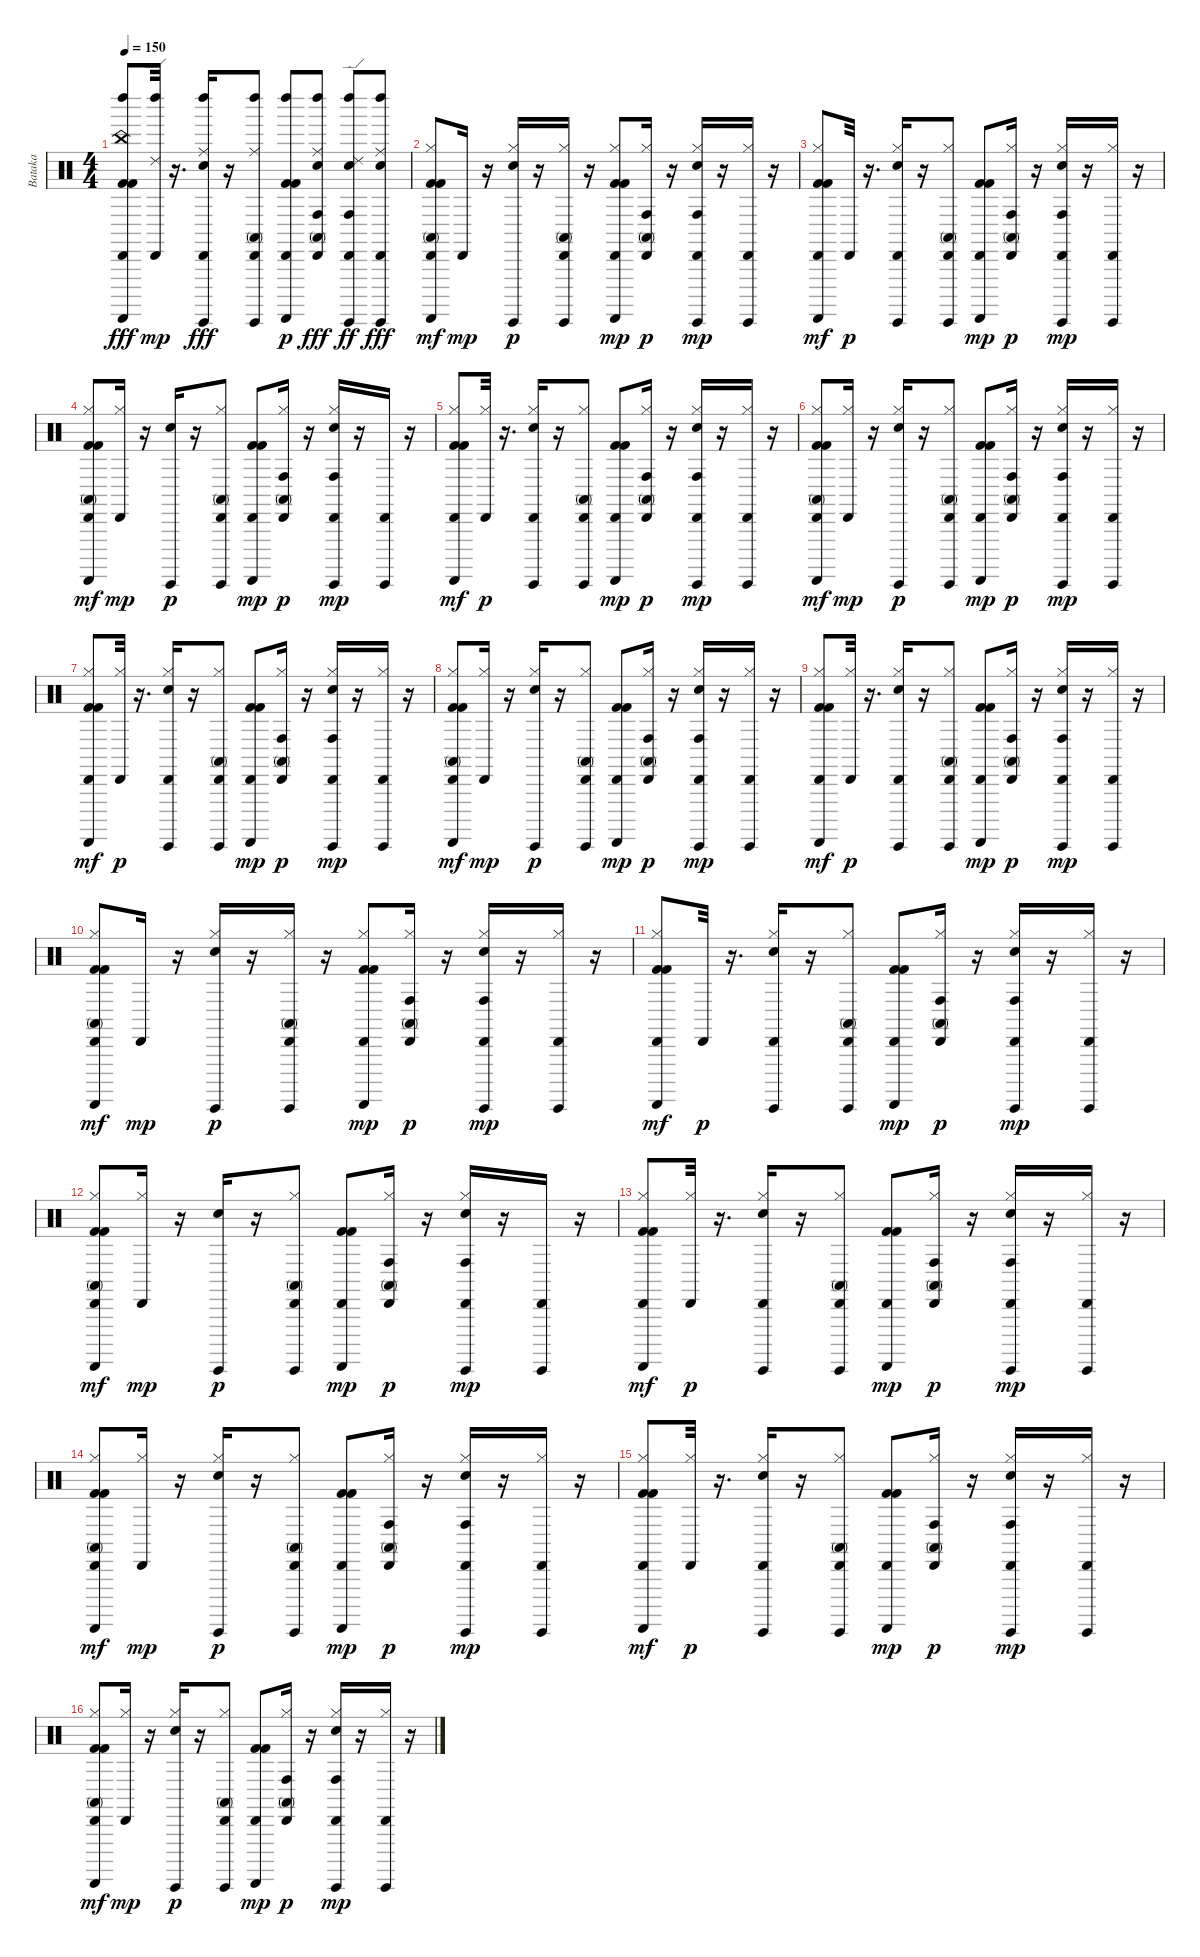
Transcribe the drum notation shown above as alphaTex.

\track ("Bataka" "Bataka") {instrument percussion}
\staff {score}
\articulation defaults
\ts (4 4)
\tempo 150
\clef neutral
\ks c
("Kick (hit) 2" "Kick (hit) 2" "Cabasa (hit)" "Guiro (scrap-return)" "Left Maraca (hit)" "China (hit)").8{dy fff} ("Cabasa (hit)" "Left Maraca (hit)" "Ride (edge) 2").32{dy mp} r.16{d} ("Electric Snare (hit)" "Cabasa (hit)" "Guiro (hit)" "Left Maraca (hit)" "Ride (middle)").16{dy fff} r.16 ("Conga high (mute)" "Cabasa (hit)" "Guiro (hit)" "Left Maraca (hit)" "Ride (middle)").8 ("Kick (hit) 2" "Kick (hit) 2" "Cabasa (hit)" "Guiro (scrap-return)" "Left Maraca (hit)").8{dy p} ("Electric Snare (hit)" "Conga high (hit)" "Conga high (mute)" "Cabasa (hit)" "Left Maraca (hit)" "Ride (middle)").8{dy fff} ("Electric Snare (hit)" "Conga high (hit)" "Cabasa (hit)" "Guiro (hit)" "Left Maraca (hit)" "Ride (edge) 2").8{dy ff} ("Electric Snare (hit)" "Cabasa (hit)" "Guiro (hit)" "Left Maraca (hit)" "Ride (middle)").8{dy fff} |
("Kick (hit) 2" "Kick (hit) 2" "Hi-Hat (closed)" "Conga high (mute)" "Cabasa (hit)" "Guiro (scrap-return)").8{dy mf} "Cabasa (hit)".16{dy mp} r.16 ("Electric Snare (hit)" "Hi-Hat (closed)" "Guiro (hit)").16{dy p} r.16 ("Hi-Hat (closed)" "Conga high (mute)" "Cabasa (hit)" "Guiro (hit)").16 r.16 ("Kick (hit) 2" "Kick (hit) 2" "Hi-Hat (closed)" "Cabasa (hit)" "Guiro (scrap-return)").8{dy mp} ("Hi-Hat (closed)" "Conga high (hit)" "Conga high (mute)" "Cabasa (hit)").16{dy p} r.16 ("Electric Snare (hit)" "Hi-Hat (closed)" "Conga high (hit)" "Cabasa (hit)" "Guiro (hit)").16{dy mp} r.16 ("Hi-Hat (closed)" "Cabasa (hit)" "Guiro (hit)").16 r.16 |
("Kick (hit) 2" "Kick (hit) 2" "Hi-Hat (closed)" "Cabasa (hit)" "Guiro (scrap-return)").8{dy mf} "Cabasa (hit)".32{dy p} r.16{d} ("Electric Snare (hit)" "Hi-Hat (closed)" "Cabasa (hit)" "Guiro (hit)").16 r.16 ("Hi-Hat (closed)" "Conga high (mute)" "Cabasa (hit)" "Guiro (hit)").8 ("Kick (hit) 2" "Kick (hit) 2" "Cabasa (hit)" "Guiro (scrap-return)").8{dy mp} ("Hi-Hat (closed)" "Conga high (hit)" "Conga high (mute)" "Cabasa (hit)").16{dy p} r.16 ("Electric Snare (hit)" "Hi-Hat (closed)" "Conga high (hit)" "Cabasa (hit)" "Guiro (hit)").16{dy mp} r.16 ("Hi-Hat (closed)" "Cabasa (hit)" "Guiro (hit)").16 r.16 |
("Kick (hit) 2" "Kick (hit) 2" "Hi-Hat (closed)" "Conga high (mute)" "Cabasa (hit)" "Guiro (scrap-return)").8{dy mf} ("Hi-Hat (closed)" "Cabasa (hit)").16{dy mp} r.16 ("Electric Snare (hit)" "Guiro (hit)").16{dy p} r.16 ("Hi-Hat (closed)" "Conga high (mute)" "Cabasa (hit)" "Guiro (hit)").8 ("Kick (hit) 2" "Kick (hit) 2" "Cabasa (hit)" "Guiro (scrap-return)").8{dy mp} ("Hi-Hat (closed)" "Conga high (hit)" "Conga high (mute)" "Cabasa (hit)").16{dy p} r.16 ("Electric Snare (hit)" "Hi-Hat (closed)" "Conga high (hit)" "Cabasa (hit)" "Guiro (hit)").16{dy mp} r.16 ("Cabasa (hit)" "Guiro (hit)").16 r.16 |
("Kick (hit) 2" "Kick (hit) 2" "Hi-Hat (closed)" "Cabasa (hit)" "Guiro (scrap-return)").8{dy mf} ("Hi-Hat (closed)" "Cabasa (hit)").32{dy p} r.16{d} ("Electric Snare (hit)" "Hi-Hat (closed)" "Cabasa (hit)" "Guiro (hit)").16 r.16 ("Hi-Hat (closed)" "Conga high (mute)" "Cabasa (hit)" "Guiro (hit)").8 ("Kick (hit) 2" "Kick (hit) 2" "Cabasa (hit)" "Guiro (scrap-return)").8{dy mp} ("Hi-Hat (closed)" "Conga high (hit)" "Conga high (mute)" "Cabasa (hit)").16{dy p} r.16 ("Electric Snare (hit)" "Hi-Hat (closed)" "Conga high (hit)" "Cabasa (hit)" "Guiro (hit)").16{dy mp} r.16 ("Hi-Hat (closed)" "Cabasa (hit)" "Guiro (hit)").16 r.16 |
("Kick (hit) 2" "Kick (hit) 2" "Hi-Hat (closed)" "Conga high (mute)" "Cabasa (hit)" "Guiro (scrap-return)").8{dy mf} ("Hi-Hat (closed)" "Cabasa (hit)").16{dy mp} r.16 ("Electric Snare (hit)" "Hi-Hat (closed)" "Guiro (hit)").16{dy p} r.16 ("Hi-Hat (closed)" "Conga high (mute)" "Cabasa (hit)" "Guiro (hit)").8 ("Kick (hit) 2" "Kick (hit) 2" "Cabasa (hit)" "Guiro (scrap-return)").8{dy mp} ("Hi-Hat (closed)" "Conga high (hit)" "Conga high (mute)" "Cabasa (hit)").16{dy p} r.16 ("Electric Snare (hit)" "Hi-Hat (closed)" "Conga high (hit)" "Cabasa (hit)" "Guiro (hit)").16{dy mp} r.16 ("Hi-Hat (closed)" "Cabasa (hit)" "Guiro (hit)").16 r.16 |
("Kick (hit) 2" "Kick (hit) 2" "Hi-Hat (closed)" "Cabasa (hit)" "Guiro (scrap-return)").8{dy mf} ("Hi-Hat (closed)" "Cabasa (hit)").32{dy p} r.16{d} ("Electric Snare (hit)" "Hi-Hat (closed)" "Cabasa (hit)" "Guiro (hit)").16 r.16 ("Hi-Hat (closed)" "Conga high (mute)" "Cabasa (hit)" "Guiro (hit)").8 ("Kick (hit) 2" "Kick (hit) 2" "Cabasa (hit)" "Guiro (scrap-return)").8{dy mp} ("Hi-Hat (closed)" "Conga high (hit)" "Conga high (mute)" "Cabasa (hit)").16{dy p} r.16 ("Electric Snare (hit)" "Hi-Hat (closed)" "Conga high (hit)" "Cabasa (hit)" "Guiro (hit)").16{dy mp} r.16 ("Hi-Hat (closed)" "Cabasa (hit)" "Guiro (hit)").16 r.16 |
("Kick (hit) 2" "Kick (hit) 2" "Hi-Hat (closed)" "Conga high (mute)" "Cabasa (hit)" "Guiro (scrap-return)").8{dy mf} ("Hi-Hat (closed)" "Cabasa (hit)").16{dy mp} r.16 ("Electric Snare (hit)" "Hi-Hat (closed)" "Guiro (hit)").16{dy p} r.16 ("Hi-Hat (closed)" "Conga high (mute)" "Cabasa (hit)" "Guiro (hit)").8 ("Kick (hit) 2" "Kick (hit) 2" "Cabasa (hit)" "Guiro (scrap-return)").8{dy mp} ("Hi-Hat (closed)" "Conga high (hit)" "Conga high (mute)" "Cabasa (hit)").16{dy p} r.16 ("Electric Snare (hit)" "Hi-Hat (closed)" "Conga high (hit)" "Cabasa (hit)" "Guiro (hit)").16{dy mp} r.16 ("Hi-Hat (closed)" "Cabasa (hit)" "Guiro (hit)").16 r.16 |
("Kick (hit) 2" "Kick (hit) 2" "Hi-Hat (closed)" "Cabasa (hit)" "Guiro (scrap-return)").8{dy mf} ("Hi-Hat (closed)" "Cabasa (hit)").32{dy p} r.16{d} ("Electric Snare (hit)" "Hi-Hat (closed)" "Cabasa (hit)" "Guiro (hit)").16 r.16 ("Hi-Hat (closed)" "Conga high (mute)" "Cabasa (hit)" "Guiro (hit)").8 ("Kick (hit) 2" "Kick (hit) 2" "Cabasa (hit)" "Guiro (scrap-return)").8{dy mp} ("Hi-Hat (closed)" "Conga high (hit)" "Conga high (mute)" "Cabasa (hit)").16{dy p} r.16 ("Electric Snare (hit)" "Hi-Hat (closed)" "Conga high (hit)" "Cabasa (hit)" "Guiro (hit)").16{dy mp} r.16 ("Hi-Hat (closed)" "Cabasa (hit)" "Guiro (hit)").16 r.16 |
("Kick (hit) 2" "Kick (hit) 2" "Hi-Hat (closed)" "Conga high (mute)" "Cabasa (hit)" "Guiro (scrap-return)").8{dy mf} "Cabasa (hit)".16{dy mp} r.16 ("Electric Snare (hit)" "Hi-Hat (closed)" "Guiro (hit)").16{dy p} r.16 ("Hi-Hat (closed)" "Conga high (mute)" "Cabasa (hit)" "Guiro (hit)").16 r.16 ("Kick (hit) 2" "Kick (hit) 2" "Hi-Hat (closed)" "Cabasa (hit)" "Guiro (scrap-return)").8{dy mp} ("Hi-Hat (closed)" "Conga high (hit)" "Conga high (mute)" "Cabasa (hit)").16{dy p} r.16 ("Electric Snare (hit)" "Hi-Hat (closed)" "Conga high (hit)" "Cabasa (hit)" "Guiro (hit)").16{dy mp} r.16 ("Hi-Hat (closed)" "Cabasa (hit)" "Guiro (hit)").16 r.16 |
("Kick (hit) 2" "Kick (hit) 2" "Hi-Hat (closed)" "Cabasa (hit)" "Guiro (scrap-return)").8{dy mf} "Cabasa (hit)".32{dy p} r.16{d} ("Electric Snare (hit)" "Hi-Hat (closed)" "Cabasa (hit)" "Guiro (hit)").16 r.16 ("Hi-Hat (closed)" "Conga high (mute)" "Cabasa (hit)" "Guiro (hit)").8 ("Kick (hit) 2" "Kick (hit) 2" "Cabasa (hit)" "Guiro (scrap-return)").8{dy mp} ("Hi-Hat (closed)" "Conga high (hit)" "Conga high (mute)" "Cabasa (hit)").16{dy p} r.16 ("Electric Snare (hit)" "Hi-Hat (closed)" "Conga high (hit)" "Cabasa (hit)" "Guiro (hit)").16{dy mp} r.16 ("Hi-Hat (closed)" "Cabasa (hit)" "Guiro (hit)").16 r.16 |
("Kick (hit) 2" "Kick (hit) 2" "Hi-Hat (closed)" "Conga high (mute)" "Cabasa (hit)" "Guiro (scrap-return)").8{dy mf} ("Hi-Hat (closed)" "Cabasa (hit)").16{dy mp} r.16 ("Electric Snare (hit)" "Guiro (hit)").16{dy p} r.16 ("Hi-Hat (closed)" "Conga high (mute)" "Cabasa (hit)" "Guiro (hit)").8 ("Kick (hit) 2" "Kick (hit) 2" "Cabasa (hit)" "Guiro (scrap-return)").8{dy mp} ("Hi-Hat (closed)" "Conga high (hit)" "Conga high (mute)" "Cabasa (hit)").16{dy p} r.16 ("Electric Snare (hit)" "Hi-Hat (closed)" "Conga high (hit)" "Cabasa (hit)" "Guiro (hit)").16{dy mp} r.16 ("Cabasa (hit)" "Guiro (hit)").16 r.16 |
("Kick (hit) 2" "Kick (hit) 2" "Hi-Hat (closed)" "Cabasa (hit)" "Guiro (scrap-return)").8{dy mf} ("Hi-Hat (closed)" "Cabasa (hit)").32{dy p} r.16{d} ("Electric Snare (hit)" "Hi-Hat (closed)" "Cabasa (hit)" "Guiro (hit)").16 r.16 ("Hi-Hat (closed)" "Conga high (mute)" "Cabasa (hit)" "Guiro (hit)").8 ("Kick (hit) 2" "Kick (hit) 2" "Cabasa (hit)" "Guiro (scrap-return)").8{dy mp} ("Hi-Hat (closed)" "Conga high (hit)" "Conga high (mute)" "Cabasa (hit)").16{dy p} r.16 ("Electric Snare (hit)" "Hi-Hat (closed)" "Conga high (hit)" "Cabasa (hit)" "Guiro (hit)").16{dy mp} r.16 ("Hi-Hat (closed)" "Cabasa (hit)" "Guiro (hit)").16 r.16 |
("Kick (hit) 2" "Kick (hit) 2" "Hi-Hat (closed)" "Conga high (mute)" "Cabasa (hit)" "Guiro (scrap-return)").8{dy mf} ("Hi-Hat (closed)" "Cabasa (hit)").16{dy mp} r.16 ("Electric Snare (hit)" "Hi-Hat (closed)" "Guiro (hit)").16{dy p} r.16 ("Hi-Hat (closed)" "Conga high (mute)" "Cabasa (hit)" "Guiro (hit)").8 ("Kick (hit) 2" "Kick (hit) 2" "Cabasa (hit)" "Guiro (scrap-return)").8{dy mp} ("Hi-Hat (closed)" "Conga high (hit)" "Conga high (mute)" "Cabasa (hit)").16{dy p} r.16 ("Electric Snare (hit)" "Hi-Hat (closed)" "Conga high (hit)" "Cabasa (hit)" "Guiro (hit)").16{dy mp} r.16 ("Hi-Hat (closed)" "Cabasa (hit)" "Guiro (hit)").16 r.16 |
("Kick (hit) 2" "Kick (hit) 2" "Hi-Hat (closed)" "Cabasa (hit)" "Guiro (scrap-return)").8{dy mf} ("Hi-Hat (closed)" "Cabasa (hit)").32{dy p} r.16{d} ("Electric Snare (hit)" "Hi-Hat (closed)" "Cabasa (hit)" "Guiro (hit)").16 r.16 ("Hi-Hat (closed)" "Conga high (mute)" "Cabasa (hit)" "Guiro (hit)").8 ("Kick (hit) 2" "Kick (hit) 2" "Cabasa (hit)" "Guiro (scrap-return)").8{dy mp} ("Hi-Hat (closed)" "Conga high (hit)" "Conga high (mute)" "Cabasa (hit)").16{dy p} r.16 ("Electric Snare (hit)" "Hi-Hat (closed)" "Conga high (hit)" "Cabasa (hit)" "Guiro (hit)").16{dy mp} r.16 ("Hi-Hat (closed)" "Cabasa (hit)" "Guiro (hit)").16 r.16 |
("Kick (hit) 2" "Kick (hit) 2" "Hi-Hat (closed)" "Conga high (mute)" "Cabasa (hit)" "Guiro (scrap-return)").8{dy mf} ("Hi-Hat (closed)" "Cabasa (hit)").16{dy mp} r.16 ("Electric Snare (hit)" "Hi-Hat (closed)" "Guiro (hit)").16{dy p} r.16 ("Hi-Hat (closed)" "Conga high (mute)" "Cabasa (hit)" "Guiro (hit)").8 ("Kick (hit) 2" "Kick (hit) 2" "Cabasa (hit)" "Guiro (scrap-return)").8{dy mp} ("Hi-Hat (closed)" "Conga high (hit)" "Conga high (mute)" "Cabasa (hit)").16{dy p} r.16 ("Electric Snare (hit)" "Hi-Hat (closed)" "Conga high (hit)" "Cabasa (hit)" "Guiro (hit)").16{dy mp} r.16 ("Hi-Hat (closed)" "Cabasa (hit)" "Guiro (hit)").16 r.16
